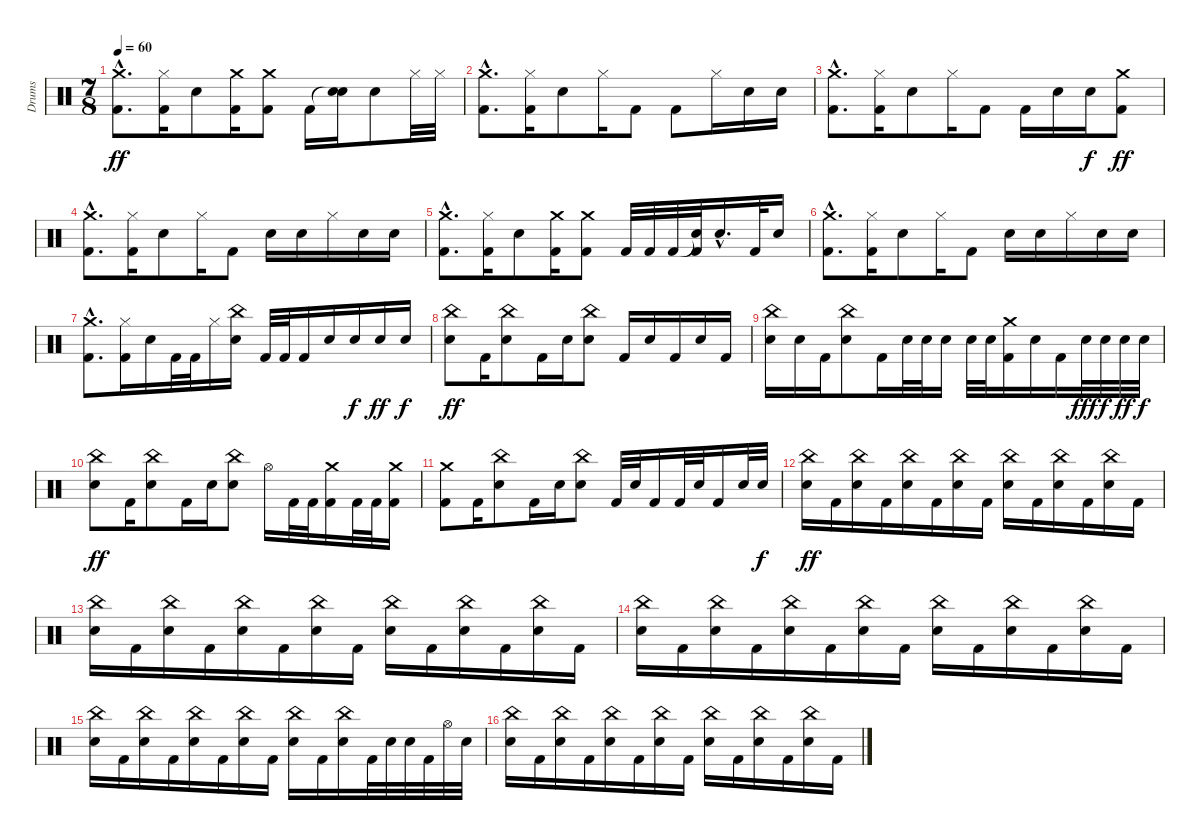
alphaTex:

\track ("Drums" "Drums") {instrument percussion}
\staff {score}
\articulation defaults
\ts (7 8)
\tempo 60
\clef neutral
\ks c
("Crash medium (hit)"{hac} "Kick (hit) 2"{hac}).8{d dy ff} ("Hi-Hat (closed)" "Kick (hit) 2").16 "Snare (hit) 2".8 ("Crash medium (hit)" "Kick (hit) 2").16 ("Crash medium (hit)" "Kick (hit) 2").8 "Kick (hit) 2".16 ("Snare (hit)"{t} "Snare (hit) 2").16 "Snare (hit) 2".8 "Hi-Hat (closed)".32 "Hi-Hat (closed)".32 |
("Crash medium (hit)"{hac} "Kick (hit) 2"{hac}).8{d} ("Hi-Hat (closed)" "Kick (hit) 2").16 "Snare (hit) 2".8 "Hi-Hat (closed)".16 "Kick (hit) 2".8 "Kick (hit) 2".8 "Hi-Hat (closed)".16 "Snare (hit) 2".16 "Snare (hit) 2".16 |
("Crash medium (hit)"{hac} "Kick (hit) 2"{hac}).8{d} ("Hi-Hat (closed)" "Kick (hit) 2").16 "Snare (hit) 2".8 "Hi-Hat (closed)".16 "Kick (hit) 2".8 "Kick (hit) 2".16 "Snare (hit) 2".16 "Snare (hit) 2".16{dy f} ("Crash medium (hit)" "Kick (hit) 2").8{dy ff} |
("Crash medium (hit)"{hac} "Kick (hit) 2"{hac}).8{d} ("Hi-Hat (closed)" "Kick (hit) 2").16 "Snare (hit) 2".8 "Hi-Hat (closed)".16 "Kick (hit) 2".8 "Snare (hit) 2".16 "Snare (hit) 2".16 "Hi-Hat (closed)".16 "Snare (hit) 2".16 "Snare (hit) 2".16 |
("Crash medium (hit)"{hac} "Kick (hit) 2"{hac}).8{d} ("Hi-Hat (closed)" "Kick (hit) 2").16 "Snare (hit) 2".8 ("Crash medium (hit)" "Kick (hit) 2").16 ("Crash medium (hit)" "Kick (hit) 2").8 "Kick (hit) 2".32 "Kick (hit) 2".32 "Kick (hit) 2".32 ("Snare (hit)"{t} "Kick (hit) 2").32 "Snare (hit) 2"{hac}.16{d} "Kick (hit) 2".32 "Snare (hit) 2".16 |
("Crash medium (hit)"{hac} "Kick (hit) 2"{hac}).8{d} ("Hi-Hat (closed)" "Kick (hit) 2").16 "Snare (hit) 2".8 "Hi-Hat (closed)".16 "Kick (hit) 2".8 "Snare (hit) 2".16 "Snare (hit) 2".16 "Hi-Hat (closed)".16 "Snare (hit) 2".16 "Snare (hit) 2".16 |
("Crash medium (hit)"{hac} "Kick (hit) 2"{hac}).8{d} ("Hi-Hat (closed)" "Kick (hit) 2").16 "Snare (hit) 2".16 "Kick (hit) 2".32 "Kick (hit) 2".32 "Hi-Hat (closed)".16 ("China (hit)" "Snare (hit) 2").16 "Kick (hit) 2".32 "Kick (hit) 2".32 "Kick (hit) 2".16 "Snare (hit) 2".16 "Snare (hit) 2".16{dy f} "Snare (hit) 2".16{dy ff} "Snare (hit) 2".16{dy f} |
("China (hit)" "Snare (hit) 2").8{dy ff} "Kick (hit) 2".16 ("China (hit)" "Snare (hit) 2").8 "Kick (hit) 2".16 "Snare (hit) 2".16 ("China (hit)" "Snare (hit) 2").8 "Kick (hit) 2".16 "Snare (hit) 2".16 "Kick (hit) 2".16 "Snare (hit) 2".16 "Kick (hit) 2".16 |
("China (hit)" "Snare (hit) 2").16 "Snare (hit) 2".16 "Kick (hit) 2".16 ("China (hit)" "Snare (hit) 2").8 "Kick (hit) 2".16 "Snare (hit) 2".32 "Snare (hit) 2".32 "Snare (hit) 2".16 "Snare (hit) 2".32 "Snare (hit) 2".32 ("Crash medium (hit)" "Kick (hit) 2").16 "Snare (hit) 2".16 "Kick (hit) 2".16 "Snare (hit) 2".32{dy fff} "Snare (hit) 2".32{dy f} "Snare (hit) 2".32{dy ff} "Snare (hit) 2".32{dy f} |
("China (hit)" "Snare (hit) 2").8{dy ff} "Kick (hit) 2".16 ("China (hit)" "Snare (hit) 2").8 "Kick (hit) 2".16 "Snare (hit) 2".16 ("China (hit)" "Snare (hit) 2").8 "Hi-Hat (open)".16 "Kick (hit) 2".32 "Kick (hit) 2".32 ("Crash medium (hit)" "Kick (hit) 2").16 "Kick (hit) 2".32 "Kick (hit) 2".32 ("Crash medium (hit)" "Kick (hit) 2").16 |
("Crash medium (hit)" "Kick (hit) 2").8 "Kick (hit) 2".16 ("China (hit)" "Snare (hit) 2").8 "Kick (hit) 2".16 "Snare (hit) 2".16 ("China (hit)" "Snare (hit) 2").8 "Kick (hit) 2".32 "Snare (hit) 2".32 "Kick (hit) 2".16 "Kick (hit) 2".32 "Snare (hit) 2".32 "Kick (hit) 2".16 "Snare (hit) 2".32 "Snare (hit) 2".32{dy f} |
("China (hit)" "Snare (hit) 2").16{dy ff} "Kick (hit) 2".16 ("China (hit)" "Snare (hit) 2").16 "Kick (hit) 2".16 ("China (hit)" "Snare (hit) 2").16 "Kick (hit) 2".16 ("China (hit)" "Snare (hit) 2").16 "Kick (hit) 2".16 ("China (hit)" "Snare (hit) 2").16 "Kick (hit) 2".16 ("China (hit)" "Snare (hit) 2").16 "Kick (hit) 2".16 ("China (hit)" "Snare (hit) 2").16 "Kick (hit) 2".16 |
("China (hit)" "Snare (hit) 2").16 "Kick (hit) 2".16 ("China (hit)" "Snare (hit) 2").16 "Kick (hit) 2".16 ("China (hit)" "Snare (hit) 2").16 "Kick (hit) 2".16 ("China (hit)" "Snare (hit) 2").16 "Kick (hit) 2".16 ("China (hit)" "Snare (hit) 2").16 "Kick (hit) 2".16 ("China (hit)" "Snare (hit) 2").16 "Kick (hit) 2".16 ("China (hit)" "Snare (hit) 2").16 "Kick (hit) 2".16 |
("China (hit)" "Snare (hit) 2").16 "Kick (hit) 2".16 ("China (hit)" "Snare (hit) 2").16 "Kick (hit) 2".16 ("China (hit)" "Snare (hit) 2").16 "Kick (hit) 2".16 ("China (hit)" "Snare (hit) 2").16 "Kick (hit) 2".16 ("China (hit)" "Snare (hit) 2").16 "Kick (hit) 2".16 ("China (hit)" "Snare (hit) 2").16 "Kick (hit) 2".16 ("China (hit)" "Snare (hit) 2").16 "Kick (hit) 2".16 |
("China (hit)" "Snare (hit) 2").16 "Kick (hit) 2".16 ("China (hit)" "Snare (hit) 2").16 "Kick (hit) 2".16 ("China (hit)" "Snare (hit) 2").16 "Kick (hit) 2".16 ("China (hit)" "Snare (hit) 2").16 "Kick (hit) 2".16 ("China (hit)" "Snare (hit) 2").16 "Kick (hit) 2".16 ("China (hit)" "Snare (hit) 2").16 "Kick (hit) 2".32 "Snare (hit) 2".32 "Snare (hit) 2".32 "Kick (hit) 2".32 "Hi-Hat (open)".32 "Snare (hit) 2".32 |
("China (hit)" "Snare (hit) 2").16 "Kick (hit) 2".16 ("China (hit)" "Snare (hit) 2").16 "Kick (hit) 2".16 ("China (hit)" "Snare (hit) 2").16 "Kick (hit) 2".16 ("China (hit)" "Snare (hit) 2").16 "Kick (hit) 2".16 ("China (hit)" "Snare (hit) 2").16 "Kick (hit) 2".16 ("China (hit)" "Snare (hit) 2").16 "Kick (hit) 2".16 ("China (hit)" "Snare (hit) 2").16 "Kick (hit) 2".16
